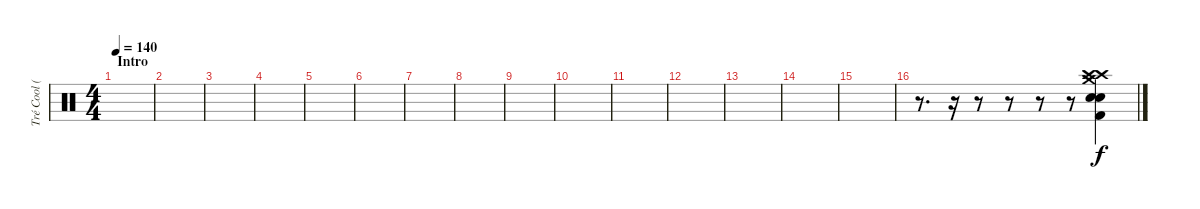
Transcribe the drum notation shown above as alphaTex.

\track ("Tré Cool (Drums)" "Tré Cool (") {instrument percussion}
\staff {score}
\articulation defaults
\ts (4 4)
\section ("" "Intro")
\tempo 140
\tempo 120
\tempo 140
\clef neutral
\ks c
|
|
|
|
|
|
|
|
|
|
|
|
|
|
|
r.8{d} r.16 r.8 r.8 r.8 r.8 ("Kick (hit) 2" "Electric Snare (hit)" "Crash high (hit)" "Crash high (hit)" "Crash medium (hit)" "Electric Snare (hit)").4
